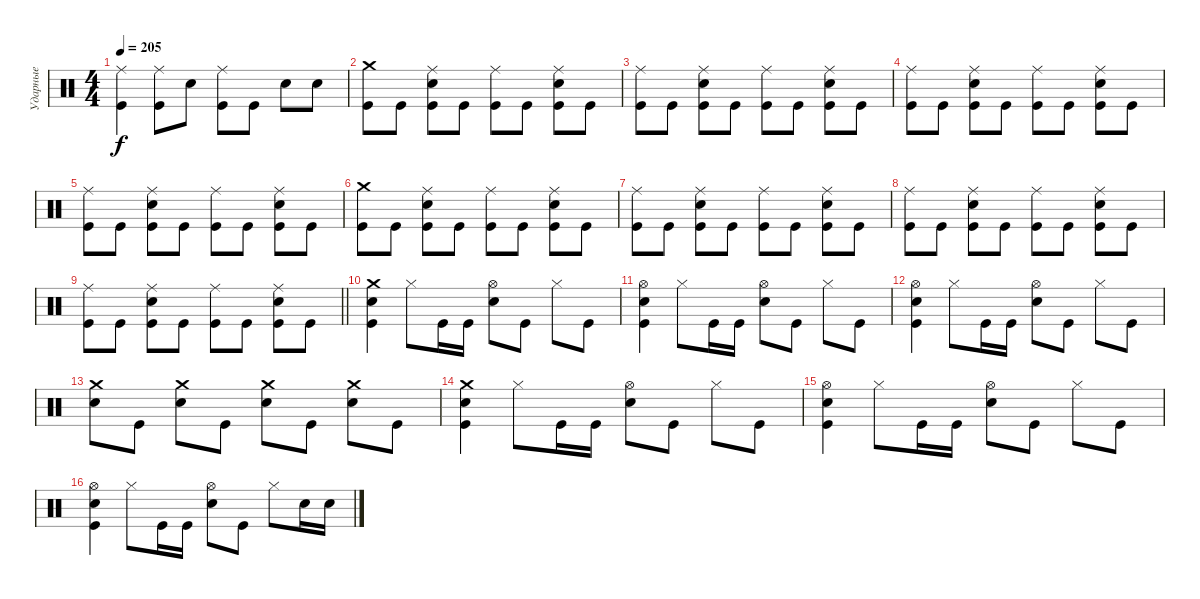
\track ("Ударные" "Ударные") {instrument percussion}
\staff {score}
\articulation defaults
\ts (4 4)
\tempo 205
\clef neutral
\ks c
("Ride (middle)" "Kick (hit)").4{dy f} ("Ride (middle)" "Kick (hit)").8 "Snare (hit) 2".8 ("Ride (middle)" "Kick (hit)").8 "Kick (hit)".8 "Snare (hit) 2".8 "Snare (hit) 2".8 |
("Crash medium (hit)" "Kick (hit)").8 "Kick (hit)".8 ("Ride (middle)" "Snare (hit) 2" "Kick (hit)").8 "Kick (hit)".8 ("Ride (middle)" "Kick (hit)").8 "Kick (hit)".8 ("Ride (middle)" "Snare (hit) 2" "Kick (hit)").8 "Kick (hit)".8 |
("Ride (middle)" "Kick (hit)").8 "Kick (hit)".8 ("Ride (middle)" "Snare (hit) 2" "Kick (hit)").8 "Kick (hit)".8 ("Ride (middle)" "Kick (hit)").8 "Kick (hit)".8 ("Ride (middle)" "Snare (hit) 2" "Kick (hit)").8 "Kick (hit)".8 |
("Ride (middle)" "Kick (hit)").8 "Kick (hit)".8 ("Ride (middle)" "Snare (hit) 2" "Kick (hit)").8 "Kick (hit)".8 ("Ride (middle)" "Kick (hit)").8 "Kick (hit)".8 ("Ride (middle)" "Snare (hit) 2" "Kick (hit)").8 "Kick (hit)".8 |
("Ride (middle)" "Kick (hit)").8 "Kick (hit)".8 ("Ride (middle)" "Snare (hit) 2" "Kick (hit)").8 "Kick (hit)".8 ("Ride (middle)" "Kick (hit)").8 "Kick (hit)".8 ("Ride (middle)" "Snare (hit) 2" "Kick (hit)").8 "Kick (hit)".8 |
("Crash medium (hit)" "Kick (hit)").8 "Kick (hit)".8 ("Ride (middle)" "Snare (hit) 2" "Kick (hit)").8 "Kick (hit)".8 ("Ride (middle)" "Kick (hit)").8 "Kick (hit)".8 ("Ride (middle)" "Snare (hit) 2" "Kick (hit)").8 "Kick (hit)".8 |
("Ride (middle)" "Kick (hit)").8 "Kick (hit)".8 ("Ride (middle)" "Snare (hit) 2" "Kick (hit)").8 "Kick (hit)".8 ("Ride (middle)" "Kick (hit)").8 "Kick (hit)".8 ("Ride (middle)" "Snare (hit) 2" "Kick (hit)").8 "Kick (hit)".8 |
("Ride (middle)" "Kick (hit)").8 "Kick (hit)".8 ("Ride (middle)" "Snare (hit) 2" "Kick (hit)").8 "Kick (hit)".8 ("Ride (middle)" "Kick (hit)").8 "Kick (hit)".8 ("Ride (middle)" "Snare (hit) 2" "Kick (hit)").8 "Kick (hit)".8 |
\barLineRight lightlight
("Ride (middle)" "Kick (hit)").8 "Kick (hit)".8 ("Ride (middle)" "Snare (hit) 2" "Kick (hit)").8 "Kick (hit)".8 ("Ride (middle)" "Kick (hit)").8 "Kick (hit)".8 ("Ride (middle)" "Snare (hit) 2" "Kick (hit)").8 "Kick (hit)".8 |
("Crash medium (hit)" "Snare (hit) 2" "Kick (hit)").4 "Hi-Hat (closed)".8 "Kick (hit)".16 "Kick (hit)".16 ("Hi-Hat (open)" "Snare (hit) 2").8 "Kick (hit)".8 "Hi-Hat (closed)".8 "Kick (hit)".8 |
("Hi-Hat (open)" "Snare (hit) 2" "Kick (hit)").4 "Hi-Hat (closed)".8 "Kick (hit)".16 "Kick (hit)".16 ("Hi-Hat (open)" "Snare (hit) 2").8 "Kick (hit)".8 "Hi-Hat (closed)".8 "Kick (hit)".8 |
("Hi-Hat (open)" "Snare (hit) 2" "Kick (hit)").4 "Hi-Hat (closed)".8 "Kick (hit)".16 "Kick (hit)".16 ("Hi-Hat (open)" "Snare (hit) 2").8 "Kick (hit)".8 "Hi-Hat (closed)".8 "Kick (hit)".8 |
("Crash medium (hit)" "Snare (hit) 2").8 "Kick (hit)".8 ("Crash medium (hit)" "Snare (hit) 2").8 "Kick (hit)".8 ("Crash medium (hit)" "Snare (hit) 2").8 "Kick (hit)".8 ("Crash medium (hit)" "Snare (hit) 2").8 "Kick (hit)".8 |
("Crash medium (hit)" "Snare (hit) 2" "Kick (hit)").4 "Hi-Hat (closed)".8 "Kick (hit)".16 "Kick (hit)".16 ("Hi-Hat (open)" "Snare (hit) 2").8 "Kick (hit)".8 "Hi-Hat (closed)".8 "Kick (hit)".8 |
("Hi-Hat (open)" "Snare (hit) 2" "Kick (hit)").4 "Hi-Hat (closed)".8 "Kick (hit)".16 "Kick (hit)".16 ("Hi-Hat (open)" "Snare (hit) 2").8 "Kick (hit)".8 "Hi-Hat (closed)".8 "Kick (hit)".8 |
("Hi-Hat (open)" "Snare (hit) 2" "Kick (hit)").4 "Hi-Hat (closed)".8 "Kick (hit)".16 "Kick (hit)".16 ("Hi-Hat (open)" "Snare (hit) 2").8 "Kick (hit)".8 "Hi-Hat (closed)".8 "Snare (hit) 2".16 "Snare (hit) 2".16
